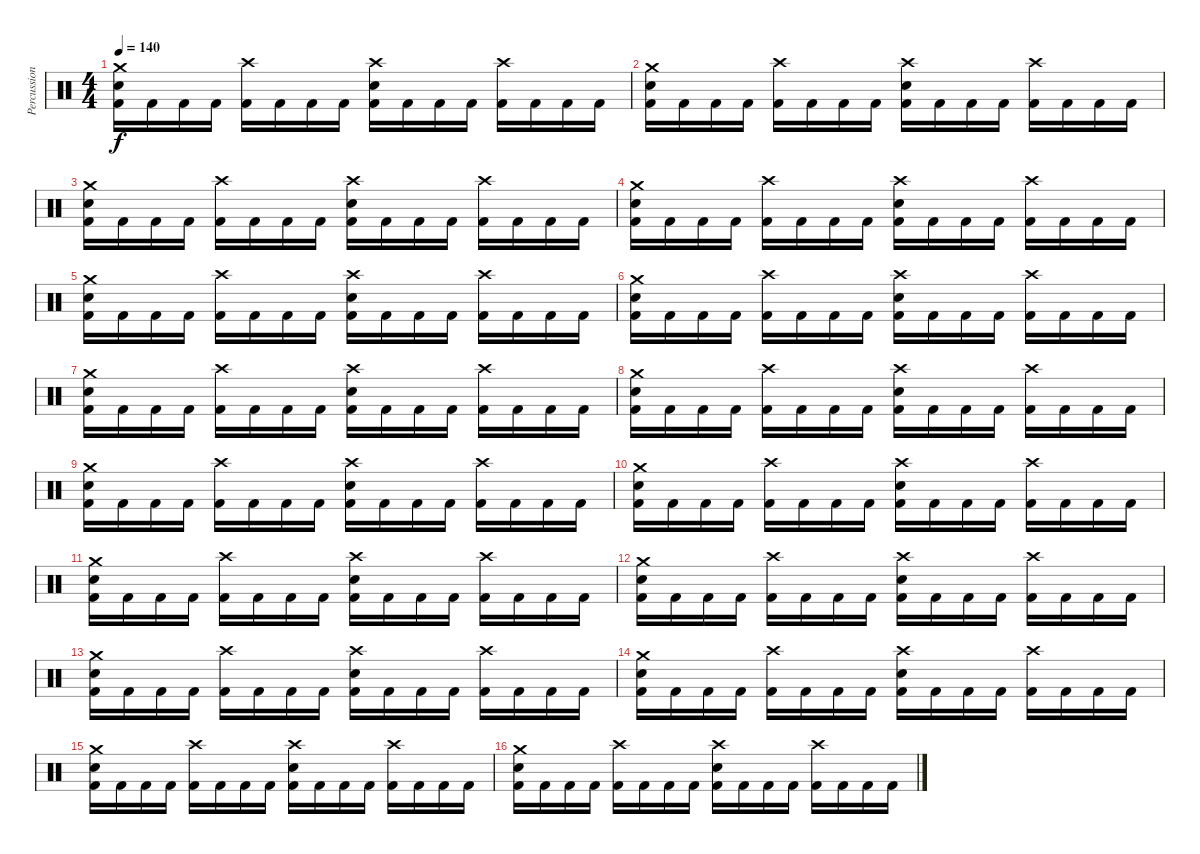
\track ("Percussion" "Percussion") {instrument percussion}
\staff {score}
\articulation defaults
\ts (4 4)
\tempo 140
\clef neutral
\ks c
("Crash medium (hit)" "Snare (hit) 2" "Kick (hit) 2").16{dy f} "Kick (hit) 2".16 "Kick (hit) 2".16 "Kick (hit) 2".16 ("Crash high (hit)" "Kick (hit) 2").16 "Kick (hit) 2".16 "Kick (hit) 2".16 "Kick (hit) 2".16 ("Crash high (hit)" "Snare (hit) 2" "Kick (hit) 2").16 "Kick (hit) 2".16 "Kick (hit) 2".16 "Kick (hit) 2".16 ("Crash high (hit)" "Kick (hit) 2").16 "Kick (hit) 2".16 "Kick (hit) 2".16 "Kick (hit) 2".16 |
("Crash medium (hit)" "Snare (hit) 2" "Kick (hit) 2").16 "Kick (hit) 2".16 "Kick (hit) 2".16 "Kick (hit) 2".16 ("Crash high (hit)" "Kick (hit) 2").16 "Kick (hit) 2".16 "Kick (hit) 2".16 "Kick (hit) 2".16 ("Crash high (hit)" "Snare (hit) 2" "Kick (hit) 2").16 "Kick (hit) 2".16 "Kick (hit) 2".16 "Kick (hit) 2".16 ("Crash high (hit)" "Kick (hit) 2").16 "Kick (hit) 2".16 "Kick (hit) 2".16 "Kick (hit) 2".16 |
("Crash medium (hit)" "Snare (hit) 2" "Kick (hit) 2").16 "Kick (hit) 2".16 "Kick (hit) 2".16 "Kick (hit) 2".16 ("Crash high (hit)" "Kick (hit) 2").16 "Kick (hit) 2".16 "Kick (hit) 2".16 "Kick (hit) 2".16 ("Crash high (hit)" "Snare (hit) 2" "Kick (hit) 2").16 "Kick (hit) 2".16 "Kick (hit) 2".16 "Kick (hit) 2".16 ("Crash high (hit)" "Kick (hit) 2").16 "Kick (hit) 2".16 "Kick (hit) 2".16 "Kick (hit) 2".16 |
("Crash medium (hit)" "Snare (hit) 2" "Kick (hit) 2").16 "Kick (hit) 2".16 "Kick (hit) 2".16 "Kick (hit) 2".16 ("Crash high (hit)" "Kick (hit) 2").16 "Kick (hit) 2".16 "Kick (hit) 2".16 "Kick (hit) 2".16 ("Crash high (hit)" "Snare (hit) 2" "Kick (hit) 2").16 "Kick (hit) 2".16 "Kick (hit) 2".16 "Kick (hit) 2".16 ("Crash high (hit)" "Kick (hit) 2").16 "Kick (hit) 2".16 "Kick (hit) 2".16 "Kick (hit) 2".16 |
("Crash medium (hit)" "Snare (hit) 2" "Kick (hit) 2").16 "Kick (hit) 2".16 "Kick (hit) 2".16 "Kick (hit) 2".16 ("Crash high (hit)" "Kick (hit) 2").16 "Kick (hit) 2".16 "Kick (hit) 2".16 "Kick (hit) 2".16 ("Crash high (hit)" "Snare (hit) 2" "Kick (hit) 2").16 "Kick (hit) 2".16 "Kick (hit) 2".16 "Kick (hit) 2".16 ("Crash high (hit)" "Kick (hit) 2").16 "Kick (hit) 2".16 "Kick (hit) 2".16 "Kick (hit) 2".16 |
("Crash medium (hit)" "Snare (hit) 2" "Kick (hit) 2").16 "Kick (hit) 2".16 "Kick (hit) 2".16 "Kick (hit) 2".16 ("Crash high (hit)" "Kick (hit) 2").16 "Kick (hit) 2".16 "Kick (hit) 2".16 "Kick (hit) 2".16 ("Crash high (hit)" "Snare (hit) 2" "Kick (hit) 2").16 "Kick (hit) 2".16 "Kick (hit) 2".16 "Kick (hit) 2".16 ("Crash high (hit)" "Kick (hit) 2").16 "Kick (hit) 2".16 "Kick (hit) 2".16 "Kick (hit) 2".16 |
("Crash medium (hit)" "Snare (hit) 2" "Kick (hit) 2").16 "Kick (hit) 2".16 "Kick (hit) 2".16 "Kick (hit) 2".16 ("Crash high (hit)" "Kick (hit) 2").16 "Kick (hit) 2".16 "Kick (hit) 2".16 "Kick (hit) 2".16 ("Crash high (hit)" "Snare (hit) 2" "Kick (hit) 2").16 "Kick (hit) 2".16 "Kick (hit) 2".16 "Kick (hit) 2".16 ("Crash high (hit)" "Kick (hit) 2").16 "Kick (hit) 2".16 "Kick (hit) 2".16 "Kick (hit) 2".16 |
("Crash medium (hit)" "Snare (hit) 2" "Kick (hit) 2").16 "Kick (hit) 2".16 "Kick (hit) 2".16 "Kick (hit) 2".16 ("Crash high (hit)" "Kick (hit) 2").16 "Kick (hit) 2".16 "Kick (hit) 2".16 "Kick (hit) 2".16 ("Crash high (hit)" "Snare (hit) 2" "Kick (hit) 2").16 "Kick (hit) 2".16 "Kick (hit) 2".16 "Kick (hit) 2".16 ("Crash high (hit)" "Kick (hit) 2").16 "Kick (hit) 2".16 "Kick (hit) 2".16 "Kick (hit) 2".16 |
("Crash medium (hit)" "Snare (hit) 2" "Kick (hit) 2").16 "Kick (hit) 2".16 "Kick (hit) 2".16 "Kick (hit) 2".16 ("Crash high (hit)" "Kick (hit) 2").16 "Kick (hit) 2".16 "Kick (hit) 2".16 "Kick (hit) 2".16 ("Crash high (hit)" "Snare (hit) 2" "Kick (hit) 2").16 "Kick (hit) 2".16 "Kick (hit) 2".16 "Kick (hit) 2".16 ("Crash high (hit)" "Kick (hit) 2").16 "Kick (hit) 2".16 "Kick (hit) 2".16 "Kick (hit) 2".16 |
("Crash medium (hit)" "Snare (hit) 2" "Kick (hit) 2").16 "Kick (hit) 2".16 "Kick (hit) 2".16 "Kick (hit) 2".16 ("Crash high (hit)" "Kick (hit) 2").16 "Kick (hit) 2".16 "Kick (hit) 2".16 "Kick (hit) 2".16 ("Crash high (hit)" "Snare (hit) 2" "Kick (hit) 2").16 "Kick (hit) 2".16 "Kick (hit) 2".16 "Kick (hit) 2".16 ("Crash high (hit)" "Kick (hit) 2").16 "Kick (hit) 2".16 "Kick (hit) 2".16 "Kick (hit) 2".16 |
("Crash medium (hit)" "Snare (hit) 2" "Kick (hit) 2").16 "Kick (hit) 2".16 "Kick (hit) 2".16 "Kick (hit) 2".16 ("Crash high (hit)" "Kick (hit) 2").16 "Kick (hit) 2".16 "Kick (hit) 2".16 "Kick (hit) 2".16 ("Crash high (hit)" "Snare (hit) 2" "Kick (hit) 2").16 "Kick (hit) 2".16 "Kick (hit) 2".16 "Kick (hit) 2".16 ("Crash high (hit)" "Kick (hit) 2").16 "Kick (hit) 2".16 "Kick (hit) 2".16 "Kick (hit) 2".16 |
("Crash medium (hit)" "Snare (hit) 2" "Kick (hit) 2").16 "Kick (hit) 2".16 "Kick (hit) 2".16 "Kick (hit) 2".16 ("Crash high (hit)" "Kick (hit) 2").16 "Kick (hit) 2".16 "Kick (hit) 2".16 "Kick (hit) 2".16 ("Crash high (hit)" "Snare (hit) 2" "Kick (hit) 2").16 "Kick (hit) 2".16 "Kick (hit) 2".16 "Kick (hit) 2".16 ("Crash high (hit)" "Kick (hit) 2").16 "Kick (hit) 2".16 "Kick (hit) 2".16 "Kick (hit) 2".16 |
("Crash medium (hit)" "Snare (hit) 2" "Kick (hit) 2").16 "Kick (hit) 2".16 "Kick (hit) 2".16 "Kick (hit) 2".16 ("Crash high (hit)" "Kick (hit) 2").16 "Kick (hit) 2".16 "Kick (hit) 2".16 "Kick (hit) 2".16 ("Crash high (hit)" "Snare (hit) 2" "Kick (hit) 2").16 "Kick (hit) 2".16 "Kick (hit) 2".16 "Kick (hit) 2".16 ("Crash high (hit)" "Kick (hit) 2").16 "Kick (hit) 2".16 "Kick (hit) 2".16 "Kick (hit) 2".16 |
("Crash medium (hit)" "Snare (hit) 2" "Kick (hit) 2").16 "Kick (hit) 2".16 "Kick (hit) 2".16 "Kick (hit) 2".16 ("Crash high (hit)" "Kick (hit) 2").16 "Kick (hit) 2".16 "Kick (hit) 2".16 "Kick (hit) 2".16 ("Crash high (hit)" "Snare (hit) 2" "Kick (hit) 2").16 "Kick (hit) 2".16 "Kick (hit) 2".16 "Kick (hit) 2".16 ("Crash high (hit)" "Kick (hit) 2").16 "Kick (hit) 2".16 "Kick (hit) 2".16 "Kick (hit) 2".16 |
("Crash medium (hit)" "Snare (hit) 2" "Kick (hit) 2").16 "Kick (hit) 2".16 "Kick (hit) 2".16 "Kick (hit) 2".16 ("Crash high (hit)" "Kick (hit) 2").16 "Kick (hit) 2".16 "Kick (hit) 2".16 "Kick (hit) 2".16 ("Crash high (hit)" "Snare (hit) 2" "Kick (hit) 2").16 "Kick (hit) 2".16 "Kick (hit) 2".16 "Kick (hit) 2".16 ("Crash high (hit)" "Kick (hit) 2").16 "Kick (hit) 2".16 "Kick (hit) 2".16 "Kick (hit) 2".16 |
("Crash medium (hit)" "Snare (hit) 2" "Kick (hit) 2").16 "Kick (hit) 2".16 "Kick (hit) 2".16 "Kick (hit) 2".16 ("Crash high (hit)" "Kick (hit) 2").16 "Kick (hit) 2".16 "Kick (hit) 2".16 "Kick (hit) 2".16 ("Crash high (hit)" "Snare (hit) 2" "Kick (hit) 2").16 "Kick (hit) 2".16 "Kick (hit) 2".16 "Kick (hit) 2".16 ("Crash high (hit)" "Kick (hit) 2").16 "Kick (hit) 2".16 "Kick (hit) 2".16 "Kick (hit) 2".16
